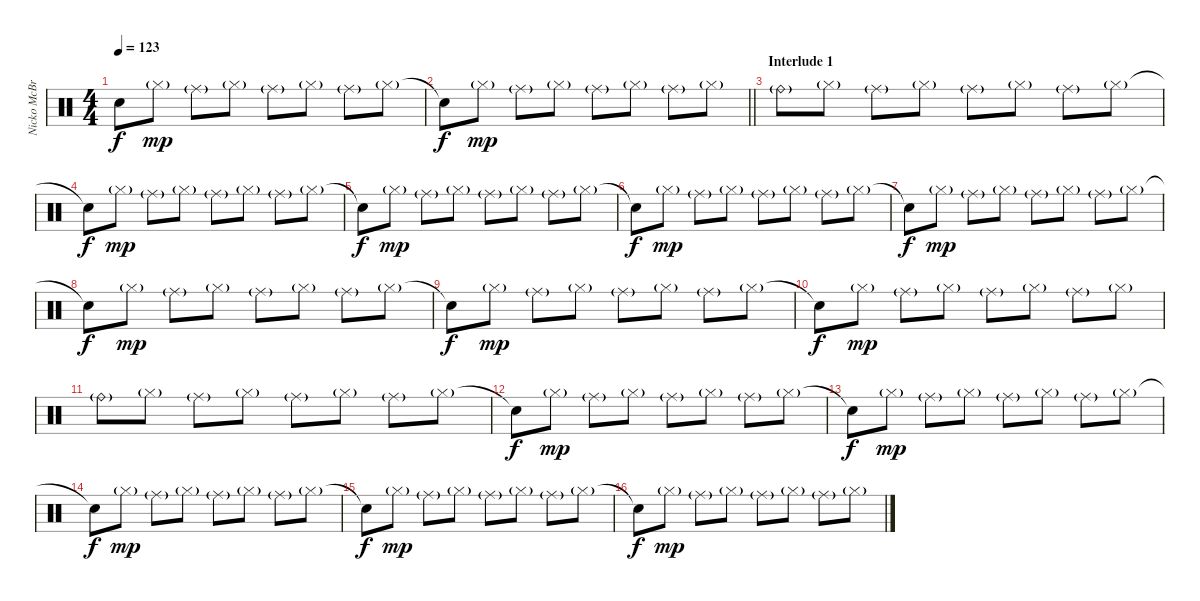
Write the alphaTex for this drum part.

\track ("Nicko McBrain" "Nicko McBr") {instrument percussion}
\staff {score}
\articulation defaults
\ts (4 4)
\tempo 123
\clef neutral
\ks c "Snare (hit)"{t}.8{dy f} "Hi-Hat (closed)"{g}.8{dy mp} "Ride (middle)"{g}.8 "Hi-Hat (closed)"{g}.8 "Ride (middle)"{g}.8 "Hi-Hat (closed)"{g}.8 "Ride (middle)"{g}.8 "Hi-Hat (closed)"{g}.8
|
\barLineRight lightlight "Snare (hit)"{t}.8{dy f} "Hi-Hat (closed)"{g}.8{dy mp} "Ride (middle)"{g}.8 "Hi-Hat (closed)"{g}.8 "Ride (middle)"{g}.8 "Hi-Hat (closed)"{g}.8 "Ride (middle)"{g}.8 "Hi-Hat (closed)"{g}.8
|
\section ("" "Interlude 1")
"Ride (bell)"{g}.8 "Hi-Hat (closed)"{g}.8 "Ride (middle)"{g}.8 "Hi-Hat (closed)"{g}.8 "Ride (middle)"{g}.8 "Hi-Hat (closed)"{g}.8 "Ride (middle)"{g}.8 "Hi-Hat (closed)"{g}.8 |
"Snare (hit)"{t}.8{dy f} "Hi-Hat (closed)"{g}.8{dy mp} "Ride (middle)"{g}.8 "Hi-Hat (closed)"{g}.8 "Ride (middle)"{g}.8 "Hi-Hat (closed)"{g}.8 "Ride (middle)"{g}.8 "Hi-Hat (closed)"{g}.8 |
"Snare (hit)"{t}.8{dy f} "Hi-Hat (closed)"{g}.8{dy mp} "Ride (middle)"{g}.8 "Hi-Hat (closed)"{g}.8 "Ride (middle)"{g}.8 "Hi-Hat (closed)"{g}.8 "Ride (middle)"{g}.8 "Hi-Hat (closed)"{g}.8 |
"Snare (hit)"{t}.8{dy f} "Hi-Hat (closed)"{g}.8{dy mp} "Ride (middle)"{g}.8 "Hi-Hat (closed)"{g}.8 "Ride (middle)"{g}.8 "Hi-Hat (closed)"{g}.8 "Ride (middle)"{g}.8 "Hi-Hat (closed)"{g}.8 |
"Snare (hit)"{t}.8{dy f} "Hi-Hat (closed)"{g}.8{dy mp} "Ride (middle)"{g}.8 "Hi-Hat (closed)"{g}.8 "Ride (middle)"{g}.8 "Hi-Hat (closed)"{g}.8 "Ride (middle)"{g}.8 "Hi-Hat (closed)"{g}.8 |
"Snare (hit)"{t}.8{dy f} "Hi-Hat (closed)"{g}.8{dy mp} "Ride (middle)"{g}.8 "Hi-Hat (closed)"{g}.8 "Ride (middle)"{g}.8 "Hi-Hat (closed)"{g}.8 "Ride (middle)"{g}.8 "Hi-Hat (closed)"{g}.8 |
"Snare (hit)"{t}.8{dy f} "Hi-Hat (closed)"{g}.8{dy mp} "Ride (middle)"{g}.8 "Hi-Hat (closed)"{g}.8 "Ride (middle)"{g}.8 "Hi-Hat (closed)"{g}.8 "Ride (middle)"{g}.8 "Hi-Hat (closed)"{g}.8 |
"Snare (hit)"{t}.8{dy f} "Hi-Hat (closed)"{g}.8{dy mp} "Ride (middle)"{g}.8 "Hi-Hat (closed)"{g}.8 "Ride (middle)"{g}.8 "Hi-Hat (closed)"{g}.8 "Ride (middle)"{g}.8 "Hi-Hat (closed)"{g}.8 |
"Ride (bell)"{g}.8 "Hi-Hat (closed)"{g}.8 "Ride (middle)"{g}.8 "Hi-Hat (closed)"{g}.8 "Ride (middle)"{g}.8 "Hi-Hat (closed)"{g}.8 "Ride (middle)"{g}.8 "Hi-Hat (closed)"{g}.8 |
"Snare (hit)"{t}.8{dy f} "Hi-Hat (closed)"{g}.8{dy mp} "Ride (middle)"{g}.8 "Hi-Hat (closed)"{g}.8 "Ride (middle)"{g}.8 "Hi-Hat (closed)"{g}.8 "Ride (middle)"{g}.8 "Hi-Hat (closed)"{g}.8 |
"Snare (hit)"{t}.8{dy f} "Hi-Hat (closed)"{g}.8{dy mp} "Ride (middle)"{g}.8 "Hi-Hat (closed)"{g}.8 "Ride (middle)"{g}.8 "Hi-Hat (closed)"{g}.8 "Ride (middle)"{g}.8 "Hi-Hat (closed)"{g}.8 |
"Snare (hit)"{t}.8{dy f} "Hi-Hat (closed)"{g}.8{dy mp} "Ride (middle)"{g}.8 "Hi-Hat (closed)"{g}.8 "Ride (middle)"{g}.8 "Hi-Hat (closed)"{g}.8 "Ride (middle)"{g}.8 "Hi-Hat (closed)"{g}.8 |
"Snare (hit)"{t}.8{dy f} "Hi-Hat (closed)"{g}.8{dy mp} "Ride (middle)"{g}.8 "Hi-Hat (closed)"{g}.8 "Ride (middle)"{g}.8 "Hi-Hat (closed)"{g}.8 "Ride (middle)"{g}.8 "Hi-Hat (closed)"{g}.8 |
"Snare (hit)"{t}.8{dy f} "Hi-Hat (closed)"{g}.8{dy mp} "Ride (middle)"{g}.8 "Hi-Hat (closed)"{g}.8 "Ride (middle)"{g}.8 "Hi-Hat (closed)"{g}.8 "Ride (middle)"{g}.8 "Hi-Hat (closed)"{g}.8
